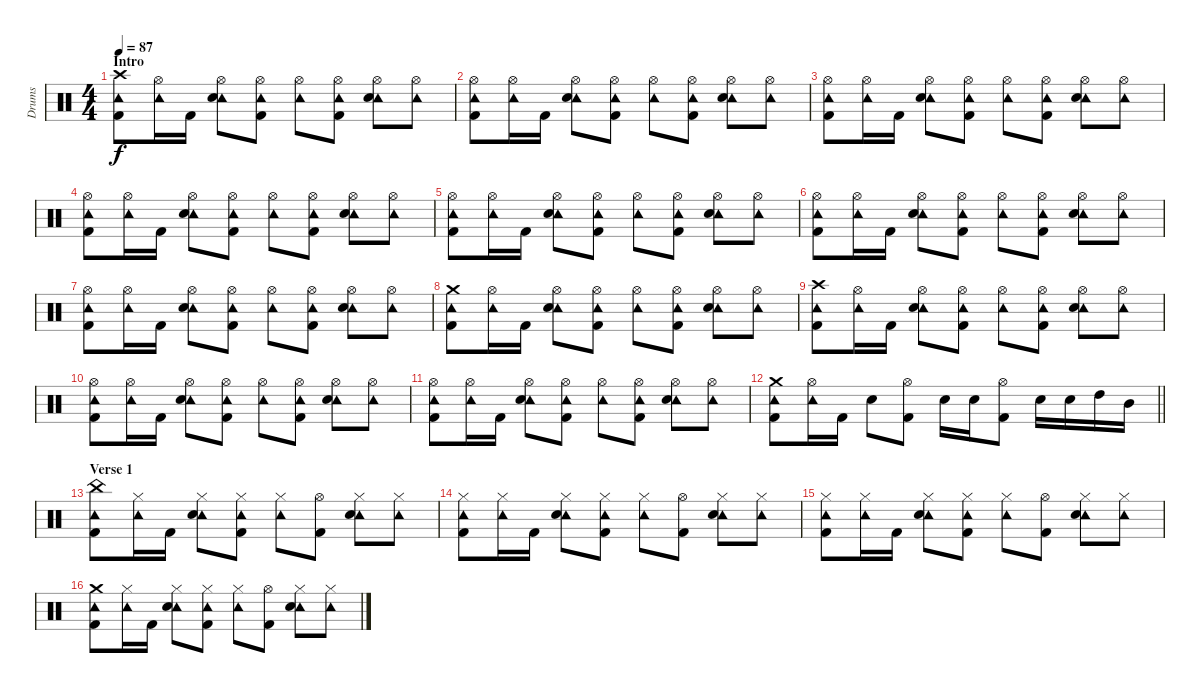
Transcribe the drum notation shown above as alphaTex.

\track ("Drums" "Drums") {instrument percussion}
\staff {score}
\articulation defaults
\ts (4 4)
\section ("" "Intro")
\tempo 87
\clef neutral
\ks c
("Tambourine (hit)" "Crash high (hit)" "Kick (hit) 2").8{dy f volume 0} ("Tambourine (hit)" "Hi-Hat (open)").16{volume 6} "Kick (hit) 2".16 ("Tambourine (hit)" "Hi-Hat (open)" "Snare (hit) 2").8 ("Tambourine (hit)" "Hi-Hat (open)" "Kick (hit) 2").8 ("Tambourine (hit)" "Hi-Hat (open)").8 ("Tambourine (hit)" "Hi-Hat (open)" "Kick (hit) 2").8 ("Tambourine (hit)" "Hi-Hat (open)" "Snare (hit) 2").8 ("Tambourine (hit)" "Hi-Hat (open)").8 |
("Tambourine (hit)" "Hi-Hat (open)" "Kick (hit) 2").8 ("Tambourine (hit)" "Hi-Hat (open)").16 "Kick (hit) 2".16 ("Tambourine (hit)" "Hi-Hat (open)" "Snare (hit) 2").8 ("Tambourine (hit)" "Hi-Hat (open)" "Kick (hit) 2").8 ("Tambourine (hit)" "Hi-Hat (open)").8 ("Tambourine (hit)" "Hi-Hat (open)" "Kick (hit) 2").8 ("Tambourine (hit)" "Hi-Hat (open)" "Snare (hit) 2").8 ("Tambourine (hit)" "Hi-Hat (open)").8 |
("Tambourine (hit)" "Hi-Hat (open)" "Kick (hit) 2").8{volume 10} ("Tambourine (hit)" "Hi-Hat (open)").16 "Kick (hit) 2".16 ("Tambourine (hit)" "Hi-Hat (open)" "Snare (hit) 2").8 ("Tambourine (hit)" "Hi-Hat (open)" "Kick (hit) 2").8 ("Tambourine (hit)" "Hi-Hat (open)").8 ("Tambourine (hit)" "Hi-Hat (open)" "Kick (hit) 2").8 ("Tambourine (hit)" "Hi-Hat (open)" "Snare (hit) 2").8 ("Tambourine (hit)" "Hi-Hat (open)").8 |
("Tambourine (hit)" "Hi-Hat (open)" "Kick (hit) 2").8 ("Tambourine (hit)" "Hi-Hat (open)").16 "Kick (hit) 2".16 ("Tambourine (hit)" "Hi-Hat (open)" "Snare (hit) 2").8 ("Tambourine (hit)" "Hi-Hat (open)" "Kick (hit) 2").8 ("Tambourine (hit)" "Hi-Hat (open)").8 ("Tambourine (hit)" "Hi-Hat (open)" "Kick (hit) 2").8 ("Tambourine (hit)" "Hi-Hat (open)" "Snare (hit) 2").8 ("Tambourine (hit)" "Hi-Hat (open)").8 |
("Tambourine (hit)" "Hi-Hat (open)" "Kick (hit) 2").8{volume 14} ("Tambourine (hit)" "Hi-Hat (open)").16 "Kick (hit) 2".16 ("Tambourine (hit)" "Hi-Hat (open)" "Snare (hit) 2").8 ("Tambourine (hit)" "Hi-Hat (open)" "Kick (hit) 2").8 ("Tambourine (hit)" "Hi-Hat (open)").8 ("Tambourine (hit)" "Hi-Hat (open)" "Kick (hit) 2").8 ("Tambourine (hit)" "Hi-Hat (open)" "Snare (hit) 2").8 ("Tambourine (hit)" "Hi-Hat (open)").8 |
("Tambourine (hit)" "Hi-Hat (open)" "Kick (hit) 2").8 ("Tambourine (hit)" "Hi-Hat (open)").16 "Kick (hit) 2".16 ("Tambourine (hit)" "Hi-Hat (open)" "Snare (hit) 2").8 ("Tambourine (hit)" "Hi-Hat (open)" "Kick (hit) 2").8 ("Tambourine (hit)" "Hi-Hat (open)").8 ("Tambourine (hit)" "Hi-Hat (open)" "Kick (hit) 2").8 ("Tambourine (hit)" "Hi-Hat (open)" "Snare (hit) 2").8 ("Tambourine (hit)" "Hi-Hat (open)").8 |
("Tambourine (hit)" "Hi-Hat (open)" "Kick (hit) 2").8 ("Tambourine (hit)" "Hi-Hat (open)").16 "Kick (hit) 2".16 ("Tambourine (hit)" "Hi-Hat (open)" "Snare (hit) 2").8 ("Tambourine (hit)" "Hi-Hat (open)" "Kick (hit) 2").8 ("Tambourine (hit)" "Hi-Hat (open)").8 ("Tambourine (hit)" "Hi-Hat (open)" "Kick (hit) 2").8 ("Tambourine (hit)" "Hi-Hat (open)" "Snare (hit) 2").8 ("Tambourine (hit)" "Hi-Hat (open)").8 |
("Tambourine (hit)" "Crash medium (hit)" "Kick (hit) 2").8 ("Tambourine (hit)" "Hi-Hat (open)").16 "Kick (hit) 2".16 ("Tambourine (hit)" "Hi-Hat (open)" "Snare (hit) 2").8 ("Tambourine (hit)" "Hi-Hat (open)" "Kick (hit) 2").8 ("Tambourine (hit)" "Hi-Hat (open)").8 ("Tambourine (hit)" "Hi-Hat (open)" "Kick (hit) 2").8 ("Tambourine (hit)" "Hi-Hat (open)" "Snare (hit) 2").8 ("Tambourine (hit)" "Hi-Hat (open)").8 |
("Tambourine (hit)" "Crash high (hit)" "Kick (hit) 2").8 ("Tambourine (hit)" "Hi-Hat (open)").16 "Kick (hit) 2".16 ("Tambourine (hit)" "Hi-Hat (open)" "Snare (hit) 2").8 ("Tambourine (hit)" "Hi-Hat (open)" "Kick (hit) 2").8 ("Tambourine (hit)" "Hi-Hat (open)").8 ("Tambourine (hit)" "Hi-Hat (open)" "Kick (hit) 2").8 ("Tambourine (hit)" "Hi-Hat (open)" "Snare (hit) 2").8 ("Tambourine (hit)" "Hi-Hat (open)").8 |
("Tambourine (hit)" "Hi-Hat (open)" "Kick (hit) 2").8 ("Tambourine (hit)" "Hi-Hat (open)").16 "Kick (hit) 2".16 ("Tambourine (hit)" "Hi-Hat (open)" "Snare (hit) 2").8 ("Tambourine (hit)" "Hi-Hat (open)" "Kick (hit) 2").8 ("Tambourine (hit)" "Hi-Hat (open)").8 ("Tambourine (hit)" "Hi-Hat (open)" "Kick (hit) 2").8 ("Tambourine (hit)" "Hi-Hat (open)" "Snare (hit) 2").8 ("Tambourine (hit)" "Hi-Hat (open)").8 |
("Tambourine (hit)" "Hi-Hat (open)" "Kick (hit) 2").8 ("Tambourine (hit)" "Hi-Hat (open)").16 "Kick (hit) 2".16 ("Tambourine (hit)" "Hi-Hat (open)" "Snare (hit) 2").8 ("Tambourine (hit)" "Hi-Hat (open)" "Kick (hit) 2").8 ("Tambourine (hit)" "Hi-Hat (open)").8 ("Tambourine (hit)" "Hi-Hat (open)" "Kick (hit) 2").8 ("Tambourine (hit)" "Hi-Hat (open)" "Snare (hit) 2").8 ("Tambourine (hit)" "Hi-Hat (open)").8 |
\barLineRight lightlight
("Tambourine (hit)" "Crash medium (hit)" "Kick (hit) 2").8 ("Tambourine (hit)" "Hi-Hat (open)").16 "Kick (hit) 2".16 "Snare (hit) 2".8 ("Hi-Hat (open)" "Kick (hit) 2").8 "Snare (hit) 2".16 "Snare (hit) 2".16 ("Hi-Hat (open)" "Kick (hit) 2").8 "Snare (hit) 2".16 "Snare (hit) 2".16 "High Tom (hit)".16 "Mid Tom (hit)".16 |
\section ("" "Verse 1")
("Tambourine (hit)" "China (hit)" "Kick (hit) 2").8 ("Tambourine (hit)" "Hi-Hat (closed)").16 "Kick (hit) 2".16 ("Tambourine (hit)" "Hi-Hat (closed)" "Snare (hit) 2").8 ("Tambourine (hit)" "Hi-Hat (closed)" "Kick (hit) 2").8 ("Tambourine (hit)" "Hi-Hat (closed)").8 ("Hi-Hat (open)" "Kick (hit) 2").8 ("Tambourine (hit)" "Hi-Hat (closed)" "Snare (hit) 2").8 ("Tambourine (hit)" "Hi-Hat (closed)").8 |
("Tambourine (hit)" "Hi-Hat (closed)" "Kick (hit) 2").8 ("Tambourine (hit)" "Hi-Hat (closed)").16 "Kick (hit) 2".16 ("Tambourine (hit)" "Hi-Hat (closed)" "Snare (hit) 2").8 ("Tambourine (hit)" "Hi-Hat (closed)" "Kick (hit) 2").8 ("Tambourine (hit)" "Hi-Hat (closed)").8 ("Hi-Hat (open)" "Kick (hit) 2").8 ("Tambourine (hit)" "Hi-Hat (closed)" "Snare (hit) 2").8 ("Tambourine (hit)" "Hi-Hat (closed)").8 |
("Tambourine (hit)" "Hi-Hat (closed)" "Kick (hit) 2").8 ("Tambourine (hit)" "Hi-Hat (closed)").16 "Kick (hit) 2".16 ("Tambourine (hit)" "Hi-Hat (closed)" "Snare (hit) 2").8 ("Tambourine (hit)" "Hi-Hat (closed)" "Kick (hit) 2").8 ("Tambourine (hit)" "Hi-Hat (closed)").8 ("Hi-Hat (open)" "Kick (hit) 2").8 ("Tambourine (hit)" "Hi-Hat (closed)" "Snare (hit) 2").8 ("Tambourine (hit)" "Hi-Hat (closed)").8 |
("Tambourine (hit)" "Crash medium (hit)" "Kick (hit) 2").8 ("Tambourine (hit)" "Hi-Hat (closed)").16 "Kick (hit) 2".16 ("Tambourine (hit)" "Hi-Hat (closed)" "Snare (hit) 2").8 ("Tambourine (hit)" "Hi-Hat (closed)" "Kick (hit) 2").8 ("Tambourine (hit)" "Hi-Hat (closed)").8 ("Hi-Hat (open)" "Kick (hit) 2").8 ("Tambourine (hit)" "Hi-Hat (closed)" "Snare (hit) 2").8 ("Tambourine (hit)" "Hi-Hat (closed)").8
